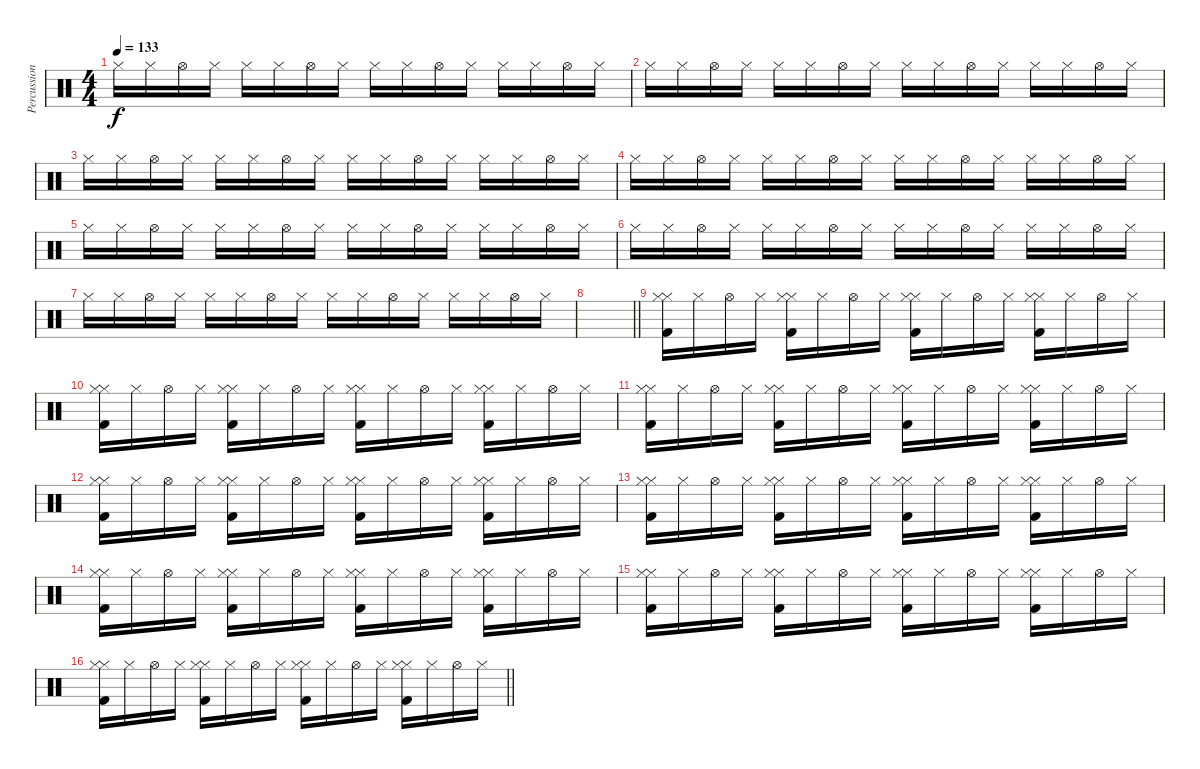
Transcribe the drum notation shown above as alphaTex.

\track ("Percussioni" "Percussion") {instrument percussion}
\staff {score}
\articulation defaults
\ts (4 4)
\tempo 133
\clef neutral
\ks c "Hi-Hat (closed)".16{dy f} "Hi-Hat (closed)".16 "Hi-Hat (open)".16 "Hi-Hat (closed)".16 "Hi-Hat (closed)".16 "Hi-Hat (closed)".16 "Hi-Hat (open)".16 "Hi-Hat (closed)".16 "Hi-Hat (closed)".16 "Hi-Hat (closed)".16 "Hi-Hat (open)".16 "Hi-Hat (closed)".16 "Hi-Hat (closed)".16 "Hi-Hat (closed)".16 "Hi-Hat (open)".16 "Hi-Hat (closed)".16
|
"Hi-Hat (closed)".16 "Hi-Hat (closed)".16 "Hi-Hat (open)".16 "Hi-Hat (closed)".16 "Hi-Hat (closed)".16 "Hi-Hat (closed)".16 "Hi-Hat (open)".16 "Hi-Hat (closed)".16 "Hi-Hat (closed)".16 "Hi-Hat (closed)".16 "Hi-Hat (open)".16 "Hi-Hat (closed)".16 "Hi-Hat (closed)".16 "Hi-Hat (closed)".16 "Hi-Hat (open)".16 "Hi-Hat (closed)".16 |
"Hi-Hat (closed)".16 "Hi-Hat (closed)".16 "Hi-Hat (open)".16 "Hi-Hat (closed)".16 "Hi-Hat (closed)".16 "Hi-Hat (closed)".16 "Hi-Hat (open)".16 "Hi-Hat (closed)".16 "Hi-Hat (closed)".16 "Hi-Hat (closed)".16 "Hi-Hat (open)".16 "Hi-Hat (closed)".16 "Hi-Hat (closed)".16 "Hi-Hat (closed)".16 "Hi-Hat (open)".16 "Hi-Hat (closed)".16 |
"Hi-Hat (closed)".16 "Hi-Hat (closed)".16 "Hi-Hat (open)".16 "Hi-Hat (closed)".16 "Hi-Hat (closed)".16 "Hi-Hat (closed)".16 "Hi-Hat (open)".16 "Hi-Hat (closed)".16 "Hi-Hat (closed)".16 "Hi-Hat (closed)".16 "Hi-Hat (open)".16 "Hi-Hat (closed)".16 "Hi-Hat (closed)".16 "Hi-Hat (closed)".16 "Hi-Hat (open)".16 "Hi-Hat (closed)".16 |
"Hi-Hat (closed)".16 "Hi-Hat (closed)".16 "Hi-Hat (open)".16 "Hi-Hat (closed)".16 "Hi-Hat (closed)".16 "Hi-Hat (closed)".16 "Hi-Hat (open)".16 "Hi-Hat (closed)".16 "Hi-Hat (closed)".16 "Hi-Hat (closed)".16 "Hi-Hat (open)".16 "Hi-Hat (closed)".16 "Hi-Hat (closed)".16 "Hi-Hat (closed)".16 "Hi-Hat (open)".16 "Hi-Hat (closed)".16 |
"Hi-Hat (closed)".16 "Hi-Hat (closed)".16 "Hi-Hat (open)".16 "Hi-Hat (closed)".16 "Hi-Hat (closed)".16 "Hi-Hat (closed)".16 "Hi-Hat (open)".16 "Hi-Hat (closed)".16 "Hi-Hat (closed)".16 "Hi-Hat (closed)".16 "Hi-Hat (open)".16 "Hi-Hat (closed)".16 "Hi-Hat (closed)".16 "Hi-Hat (closed)".16 "Hi-Hat (open)".16 "Hi-Hat (closed)".16 |
"Hi-Hat (closed)".16 "Hi-Hat (closed)".16 "Hi-Hat (open)".16 "Hi-Hat (closed)".16 "Hi-Hat (closed)".16 "Hi-Hat (closed)".16 "Hi-Hat (open)".16 "Hi-Hat (closed)".16 "Hi-Hat (closed)".16 "Hi-Hat (closed)".16 "Hi-Hat (open)".16 "Hi-Hat (closed)".16 "Hi-Hat (closed)".16 "Hi-Hat (closed)".16 "Hi-Hat (open)".16 "Hi-Hat (closed)".16 |
\barLineRight lightlight
|
("Hi-Hat (closed)" "Kick (hit) 2" "Hi-Hat (closed)").16 "Hi-Hat (closed)".16 "Hi-Hat (open)".16 "Hi-Hat (closed)".16 ("Hi-Hat (closed)" "Kick (hit) 2" "Hi-Hat (closed)").16 "Hi-Hat (closed)".16 "Hi-Hat (open)".16 "Hi-Hat (closed)".16 ("Hi-Hat (closed)" "Kick (hit) 2" "Hi-Hat (closed)").16 "Hi-Hat (closed)".16 "Hi-Hat (open)".16 "Hi-Hat (closed)".16 ("Hi-Hat (closed)" "Kick (hit) 2" "Hi-Hat (closed)").16 "Hi-Hat (closed)".16 "Hi-Hat (open)".16 "Hi-Hat (closed)".16 |
("Hi-Hat (closed)" "Kick (hit) 2" "Hi-Hat (closed)").16 "Hi-Hat (closed)".16 "Hi-Hat (open)".16 "Hi-Hat (closed)".16 ("Hi-Hat (closed)" "Kick (hit) 2" "Hi-Hat (closed)").16 "Hi-Hat (closed)".16 "Hi-Hat (open)".16 "Hi-Hat (closed)".16 ("Hi-Hat (closed)" "Kick (hit) 2" "Hi-Hat (closed)").16 "Hi-Hat (closed)".16 "Hi-Hat (open)".16 "Hi-Hat (closed)".16 ("Hi-Hat (closed)" "Kick (hit) 2" "Hi-Hat (closed)").16 "Hi-Hat (closed)".16 "Hi-Hat (open)".16 "Hi-Hat (closed)".16 |
("Hi-Hat (closed)" "Kick (hit) 2" "Hi-Hat (closed)").16 "Hi-Hat (closed)".16 "Hi-Hat (open)".16 "Hi-Hat (closed)".16 ("Hi-Hat (closed)" "Kick (hit) 2" "Hi-Hat (closed)").16 "Hi-Hat (closed)".16 "Hi-Hat (open)".16 "Hi-Hat (closed)".16 ("Hi-Hat (closed)" "Kick (hit) 2" "Hi-Hat (closed)").16 "Hi-Hat (closed)".16 "Hi-Hat (open)".16 "Hi-Hat (closed)".16 ("Hi-Hat (closed)" "Kick (hit) 2" "Hi-Hat (closed)").16 "Hi-Hat (closed)".16 "Hi-Hat (open)".16 "Hi-Hat (closed)".16 |
("Hi-Hat (closed)" "Kick (hit) 2" "Hi-Hat (closed)").16 "Hi-Hat (closed)".16 "Hi-Hat (open)".16 "Hi-Hat (closed)".16 ("Hi-Hat (closed)" "Kick (hit) 2" "Hi-Hat (closed)").16 "Hi-Hat (closed)".16 "Hi-Hat (open)".16 "Hi-Hat (closed)".16 ("Hi-Hat (closed)" "Kick (hit) 2" "Hi-Hat (closed)").16 "Hi-Hat (closed)".16 "Hi-Hat (open)".16 "Hi-Hat (closed)".16 ("Hi-Hat (closed)" "Kick (hit) 2" "Hi-Hat (closed)").16 "Hi-Hat (closed)".16 "Hi-Hat (open)".16 "Hi-Hat (closed)".16 |
("Hi-Hat (closed)" "Kick (hit) 2" "Hi-Hat (closed)").16 "Hi-Hat (closed)".16 "Hi-Hat (open)".16 "Hi-Hat (closed)".16 ("Hi-Hat (closed)" "Kick (hit) 2" "Hi-Hat (closed)").16 "Hi-Hat (closed)".16 "Hi-Hat (open)".16 "Hi-Hat (closed)".16 ("Hi-Hat (closed)" "Kick (hit) 2" "Hi-Hat (closed)").16 "Hi-Hat (closed)".16 "Hi-Hat (open)".16 "Hi-Hat (closed)".16 ("Hi-Hat (closed)" "Kick (hit) 2" "Hi-Hat (closed)").16 "Hi-Hat (closed)".16 "Hi-Hat (open)".16 "Hi-Hat (closed)".16 |
("Hi-Hat (closed)" "Kick (hit) 2" "Hi-Hat (closed)").16 "Hi-Hat (closed)".16 "Hi-Hat (open)".16 "Hi-Hat (closed)".16 ("Hi-Hat (closed)" "Kick (hit) 2" "Hi-Hat (closed)").16 "Hi-Hat (closed)".16 "Hi-Hat (open)".16 "Hi-Hat (closed)".16 ("Hi-Hat (closed)" "Kick (hit) 2" "Hi-Hat (closed)").16 "Hi-Hat (closed)".16 "Hi-Hat (open)".16 "Hi-Hat (closed)".16 ("Hi-Hat (closed)" "Kick (hit) 2" "Hi-Hat (closed)").16 "Hi-Hat (closed)".16 "Hi-Hat (open)".16 "Hi-Hat (closed)".16 |
("Hi-Hat (closed)" "Kick (hit) 2" "Hi-Hat (closed)").16 "Hi-Hat (closed)".16 "Hi-Hat (open)".16 "Hi-Hat (closed)".16 ("Hi-Hat (closed)" "Kick (hit) 2" "Hi-Hat (closed)").16 "Hi-Hat (closed)".16 "Hi-Hat (open)".16 "Hi-Hat (closed)".16 ("Hi-Hat (closed)" "Kick (hit) 2" "Hi-Hat (closed)").16 "Hi-Hat (closed)".16 "Hi-Hat (open)".16 "Hi-Hat (closed)".16 ("Hi-Hat (closed)" "Kick (hit) 2" "Hi-Hat (closed)").16 "Hi-Hat (closed)".16 "Hi-Hat (open)".16 "Hi-Hat (closed)".16 |
\barLineRight lightlight
("Hi-Hat (closed)" "Kick (hit) 2" "Hi-Hat (closed)").16 "Hi-Hat (closed)".16 "Hi-Hat (open)".16 "Hi-Hat (closed)".16 ("Hi-Hat (closed)" "Kick (hit) 2" "Hi-Hat (closed)").16 "Hi-Hat (closed)".16 "Hi-Hat (open)".16 "Hi-Hat (closed)".16 ("Hi-Hat (closed)" "Kick (hit) 2" "Hi-Hat (closed)").16 "Hi-Hat (closed)".16 "Hi-Hat (open)".16 "Hi-Hat (closed)".16 ("Hi-Hat (closed)" "Kick (hit) 2" "Hi-Hat (closed)").16 "Hi-Hat (closed)".16 "Hi-Hat (open)".16 "Hi-Hat (closed)".16
